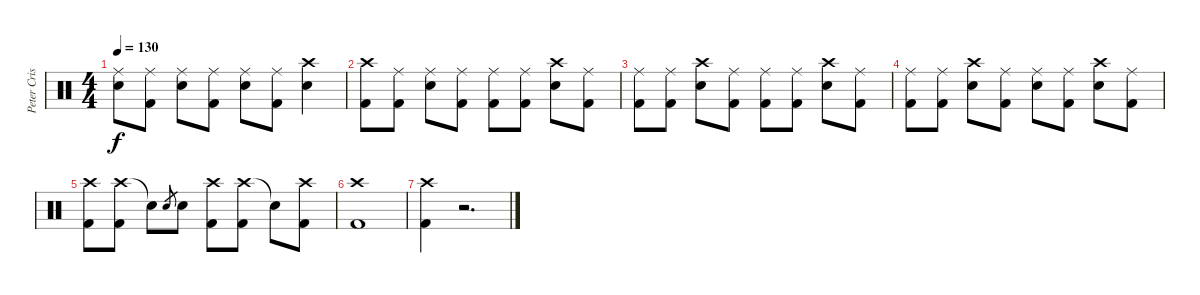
\track ("Peter Criss" "Peter Cris") {instrument percussion}
\staff {score}
\articulation defaults
\ts (4 4)
\tempo 130
\clef neutral
\ks c
("Ride (middle)" "Snare (hit) 2").8{dy f} ("Ride (middle)" "Kick (hit) 2").8 ("Ride (middle)" "Snare (hit) 2").8 ("Ride (middle)" "Kick (hit) 2").8 ("Ride (middle)" "Snare (hit) 2").8 ("Ride (middle)" "Kick (hit) 2").8 ("Crash high (hit)" "Snare (hit) 2").4 |
("Crash high (hit)" "Kick (hit) 2").8 ("Ride (middle)" "Kick (hit) 2").8 ("Ride (middle)" "Snare (hit) 2").8 ("Ride (middle)" "Kick (hit) 2").8 ("Ride (middle)" "Kick (hit) 2").8 ("Ride (middle)" "Kick (hit) 2").8 ("Crash high (hit)" "Snare (hit) 2").8 ("Ride (middle)" "Kick (hit) 2").8 |
("Ride (middle)" "Kick (hit) 2").8 ("Ride (middle)" "Kick (hit) 2").8 ("Crash high (hit)" "Snare (hit) 2").8 ("Ride (middle)" "Kick (hit) 2").8 ("Ride (middle)" "Kick (hit) 2").8 ("Ride (middle)" "Kick (hit) 2").8 ("Crash high (hit)" "Snare (hit) 2").8 ("Ride (middle)" "Kick (hit) 2").8 |
("Ride (middle)" "Kick (hit) 2").8 ("Ride (middle)" "Kick (hit) 2").8 ("Crash high (hit)" "Snare (hit) 2").8 ("Ride (middle)" "Kick (hit) 2").8 ("Ride (middle)" "Snare (hit) 2").8 ("Ride (middle)" "Kick (hit) 2").8 ("Crash high (hit)" "Snare (hit) 2").8 ("Ride (middle)" "Kick (hit) 2").8 |
("Crash high (hit)" "Kick (hit) 2").8 ("Crash high (hit)" "Kick (hit) 2").8 "Snare (hit)"{t}.8 "Snare (hit) 2".8{gr} "Snare (hit) 2".8 ("Crash high (hit)" "Kick (hit) 2").8 ("Crash high (hit)" "Kick (hit) 2").8 "Snare (hit)"{t}.8 ("Crash high (hit)" "Kick (hit) 2").8 |
("Crash high (hit)" "Kick (hit) 2").1 |
("Crash high (hit)" "Kick (hit) 2").4 r.2{d}
